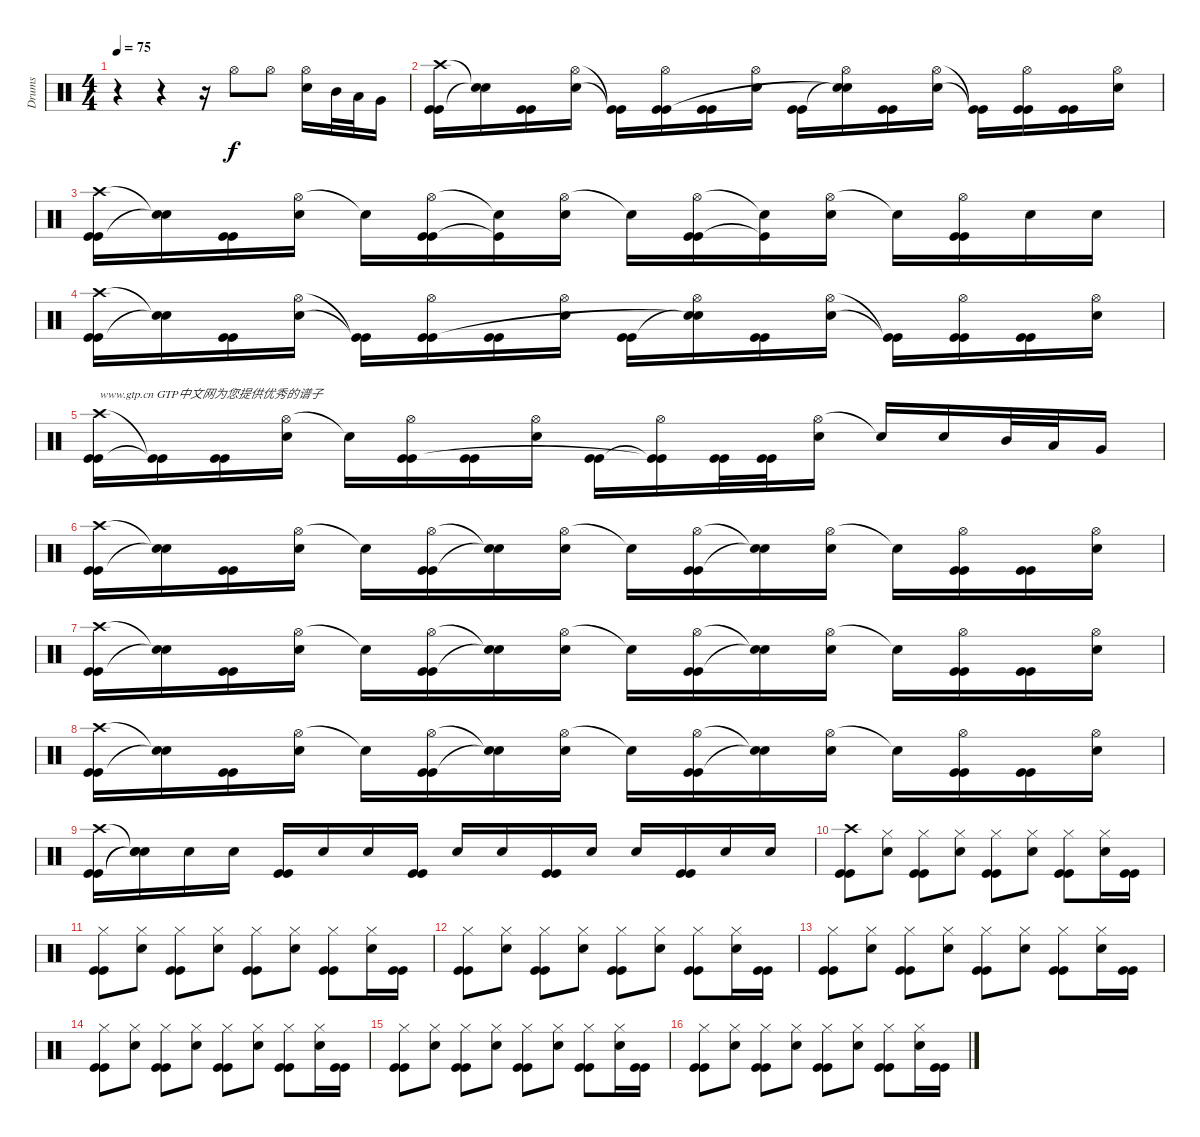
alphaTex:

\track ("Drums" "Drums") {instrument percussion}
\staff {score}
\articulation defaults
\ts (4 4)
\tempo 75
\clef neutral
\ks c
r.4{dy f} r.4 r.16 "Hi-Hat (open)".8 "Hi-Hat (open)".8 ("Hi-Hat (open)" "Snare (hit) 2").16 "Mid Tom (hit)".32 "Low Tom (hit)".32 "Very Low Tom (hit)".16 |
("Crash high (hit)" "Kick (hit)" "Kick (hit)").16 ("Snare (hit)"{t} "Snare (hit)"{t}).16 ("Kick (hit)" "Kick (hit)").16 ("Hi-Hat (open)" "Snare (hit) 2").16 ("Kick (hit)"{t} "Kick (hit)"{t}).16 ("Hi-Hat (open)" "Kick (hit)" "Kick (hit)").16 ("Kick (hit)" "Kick (hit)").16 ("Hi-Hat (open)" "Snare (hit) 2").16 ("Kick (hit)" "Kick (hit)").16 ("Hi-Hat (open)" "Snare (hit)"{t} "Snare (hit)"{t}).16 ("Kick (hit)" "Kick (hit)").16 ("Hi-Hat (open)" "Snare (hit) 2").16 ("Kick (hit)"{t} "Kick (hit)"{t}).16 ("Hi-Hat (open)" "Kick (hit)" "Kick (hit)").16 ("Kick (hit)" "Kick (hit)").16 ("Hi-Hat (open)" "Snare (hit) 2").16 |
("Crash high (hit)" "Kick (hit)" "Kick (hit)").16 ("Snare (hit)"{t} "Snare (hit)"{t}).16 ("Kick (hit)" "Kick (hit)").16 ("Hi-Hat (open)" "Snare (hit) 2").16 "Snare (hit)"{t}.16 ("Hi-Hat (open)" "Kick (hit)" "Kick (hit)").16 ("Snare (hit)"{t} "Kick (hit)"{t}).16 ("Hi-Hat (open)" "Snare (hit) 2").16 "Snare (hit)"{t}.16 ("Hi-Hat (open)" "Kick (hit)" "Kick (hit)").16 ("Snare (hit)"{t} "Kick (hit)"{t}).16 ("Hi-Hat (open)" "Snare (hit) 2").16 "Snare (hit)"{t}.16 ("Hi-Hat (open)" "Kick (hit)" "Kick (hit)").16 "Snare (hit) 2".16 "Snare (hit) 2".16 |
("Crash high (hit)" "Kick (hit)" "Kick (hit)").16 ("Snare (hit)"{t} "Snare (hit)"{t}).16 ("Kick (hit)" "Kick (hit)").16 ("Hi-Hat (open)" "Snare (hit) 2").16 ("Kick (hit)"{t} "Kick (hit)"{t}).16 ("Hi-Hat (open)" "Kick (hit)" "Kick (hit)").16 ("Kick (hit)" "Kick (hit)").16 ("Hi-Hat (open)" "Snare (hit) 2").16 ("Kick (hit)" "Kick (hit)").16 ("Hi-Hat (open)" "Snare (hit)"{t} "Snare (hit)"{t}).16 ("Kick (hit)" "Kick (hit)").16 ("Hi-Hat (open)" "Snare (hit) 2").16 ("Kick (hit)"{t} "Kick (hit)"{t}).16 ("Hi-Hat (open)" "Kick (hit)" "Kick (hit)").16 ("Kick (hit)" "Kick (hit)").16 ("Hi-Hat (open)" "Snare (hit) 2").16 |
("Crash high (hit)" "Kick (hit)" "Kick (hit)").16{txt "www.gtp.cn GTP中文网为您提供优秀的谱子"} ("Kick (hit)"{t} "Kick (hit)"{t}).16 ("Kick (hit)" "Kick (hit)").16 ("Hi-Hat (open)" "Snare (hit) 2").16 "Snare (hit)"{t}.16 ("Hi-Hat (open)" "Kick (hit)" "Kick (hit)").16 ("Kick (hit)" "Kick (hit)").16 ("Hi-Hat (open)" "Snare (hit) 2").16 ("Kick (hit)" "Kick (hit)").16 ("Hi-Hat (open)" "Kick (hit)"{t} "Kick (hit)"{t}).16 ("Kick (hit)" "Kick (hit)").32 ("Kick (hit)" "Kick (hit)").32 ("Hi-Hat (open)" "Snare (hit) 2").16 "Snare (hit)"{t}.16 "Snare (hit) 2".16 "Mid Tom (hit)".32 "Low Tom (hit)".32 "Very Low Tom (hit)".16 |
("Crash high (hit)" "Kick (hit)" "Kick (hit)").16 ("Snare (hit)"{t} "Snare (hit)"{t}).16 ("Kick (hit)" "Kick (hit)").16 ("Hi-Hat (open)" "Snare (hit) 2").16 "Snare (hit)"{t}.16 ("Hi-Hat (open)" "Kick (hit)" "Kick (hit)").16 ("Snare (hit)"{t} "Snare (hit)"{t}).16 ("Hi-Hat (open)" "Snare (hit) 2").16 "Snare (hit)"{t}.16 ("Hi-Hat (open)" "Kick (hit)" "Kick (hit)").16 ("Snare (hit)"{t} "Snare (hit)"{t}).16 ("Hi-Hat (open)" "Snare (hit) 2").16 "Snare (hit)"{t}.16 ("Hi-Hat (open)" "Kick (hit)" "Kick (hit)").16 ("Kick (hit)" "Kick (hit)").16 ("Hi-Hat (open)" "Snare (hit) 2").16 |
("Crash high (hit)" "Kick (hit)" "Kick (hit)").16 ("Snare (hit)"{t} "Snare (hit)"{t}).16 ("Kick (hit)" "Kick (hit)").16 ("Hi-Hat (open)" "Snare (hit) 2").16 "Snare (hit)"{t}.16 ("Hi-Hat (open)" "Kick (hit)" "Kick (hit)").16 ("Snare (hit)"{t} "Snare (hit)"{t}).16 ("Hi-Hat (open)" "Snare (hit) 2").16 "Snare (hit)"{t}.16 ("Hi-Hat (open)" "Kick (hit)" "Kick (hit)").16 ("Snare (hit)"{t} "Snare (hit)"{t}).16 ("Hi-Hat (open)" "Snare (hit) 2").16 "Snare (hit)"{t}.16 ("Hi-Hat (open)" "Kick (hit)" "Kick (hit)").16 ("Kick (hit)" "Kick (hit)").16 ("Hi-Hat (open)" "Snare (hit) 2").16 |
("Crash high (hit)" "Kick (hit)" "Kick (hit)").16 ("Snare (hit)"{t} "Snare (hit)"{t}).16 ("Kick (hit)" "Kick (hit)").16 ("Hi-Hat (open)" "Snare (hit) 2").16 "Snare (hit)"{t}.16 ("Hi-Hat (open)" "Kick (hit)" "Kick (hit)").16 ("Snare (hit)"{t} "Snare (hit)"{t}).16 ("Hi-Hat (open)" "Snare (hit) 2").16 "Snare (hit)"{t}.16 ("Hi-Hat (open)" "Kick (hit)" "Kick (hit)").16 ("Snare (hit)"{t} "Snare (hit)"{t}).16 ("Hi-Hat (open)" "Snare (hit) 2").16 "Snare (hit)"{t}.16 ("Hi-Hat (open)" "Kick (hit)" "Kick (hit)").16 ("Kick (hit)" "Kick (hit)").16 ("Hi-Hat (open)" "Snare (hit) 2").16 |
("Crash high (hit)" "Kick (hit)" "Kick (hit)").16 ("Snare (hit)"{t} "Snare (hit)"{t} "Snare (hit)"{t}).16 "Snare (hit) 2".16 "Snare (hit) 2".16 ("Kick (hit)" "Kick (hit)").16 "Snare (hit) 2".16 "Snare (hit) 2".16 ("Kick (hit)" "Kick (hit)").16 "Snare (hit) 2".16 "Snare (hit) 2".16 ("Kick (hit)" "Kick (hit)").16 "Snare (hit) 2".16 "Snare (hit) 2".16 ("Kick (hit)" "Kick (hit)").16 "Snare (hit) 2".16 "Snare (hit) 2".16 |
("Crash high (hit)" "Kick (hit)" "Kick (hit)").8 ("Hi-Hat (closed)" "Snare (hit) 2").8 ("Hi-Hat (closed)" "Kick (hit)" "Kick (hit)").8 ("Hi-Hat (closed)" "Snare (hit) 2").8 ("Hi-Hat (closed)" "Kick (hit)" "Kick (hit)").8 ("Hi-Hat (closed)" "Snare (hit) 2").8 ("Hi-Hat (closed)" "Kick (hit)" "Kick (hit)").8 ("Hi-Hat (closed)" "Snare (hit) 2").16 ("Kick (hit)" "Kick (hit)").16 |
("Hi-Hat (closed)" "Kick (hit)" "Kick (hit)").8 ("Hi-Hat (closed)" "Snare (hit) 2").8 ("Hi-Hat (closed)" "Kick (hit)" "Kick (hit)").8 ("Hi-Hat (closed)" "Snare (hit) 2").8 ("Hi-Hat (closed)" "Kick (hit)" "Kick (hit)").8 ("Hi-Hat (closed)" "Snare (hit) 2").8 ("Hi-Hat (closed)" "Kick (hit)" "Kick (hit)").8 ("Hi-Hat (closed)" "Snare (hit) 2").16 ("Kick (hit)" "Kick (hit)").16 |
("Hi-Hat (closed)" "Kick (hit)" "Kick (hit)").8 ("Hi-Hat (closed)" "Snare (hit) 2").8 ("Hi-Hat (closed)" "Kick (hit)" "Kick (hit)").8 ("Hi-Hat (closed)" "Snare (hit) 2").8 ("Hi-Hat (closed)" "Kick (hit)" "Kick (hit)").8 ("Hi-Hat (closed)" "Snare (hit) 2").8 ("Hi-Hat (closed)" "Kick (hit)" "Kick (hit)").8 ("Hi-Hat (closed)" "Snare (hit) 2").16 ("Kick (hit)" "Kick (hit)").16 |
("Hi-Hat (closed)" "Kick (hit)" "Kick (hit)").8 ("Hi-Hat (closed)" "Snare (hit) 2").8 ("Hi-Hat (closed)" "Kick (hit)" "Kick (hit)").8 ("Hi-Hat (closed)" "Snare (hit) 2").8 ("Hi-Hat (closed)" "Kick (hit)" "Kick (hit)").8 ("Hi-Hat (closed)" "Snare (hit) 2").8 ("Hi-Hat (closed)" "Kick (hit)" "Kick (hit)").8 ("Hi-Hat (closed)" "Snare (hit) 2").16 ("Kick (hit)" "Kick (hit)").16 |
("Hi-Hat (closed)" "Kick (hit)" "Kick (hit)").8 ("Hi-Hat (closed)" "Snare (hit) 2").8 ("Hi-Hat (closed)" "Kick (hit)" "Kick (hit)").8 ("Hi-Hat (closed)" "Snare (hit) 2").8 ("Hi-Hat (closed)" "Kick (hit)" "Kick (hit)").8 ("Hi-Hat (closed)" "Snare (hit) 2").8 ("Hi-Hat (closed)" "Kick (hit)" "Kick (hit)").8 ("Hi-Hat (closed)" "Snare (hit) 2").16 ("Kick (hit)" "Kick (hit)").16 |
("Hi-Hat (closed)" "Kick (hit)" "Kick (hit)").8 ("Hi-Hat (closed)" "Snare (hit) 2").8 ("Hi-Hat (closed)" "Kick (hit)" "Kick (hit)").8 ("Hi-Hat (closed)" "Snare (hit) 2").8 ("Hi-Hat (closed)" "Kick (hit)" "Kick (hit)").8 ("Hi-Hat (closed)" "Snare (hit) 2").8 ("Hi-Hat (closed)" "Kick (hit)" "Kick (hit)").8 ("Hi-Hat (closed)" "Snare (hit) 2").16 ("Kick (hit)" "Kick (hit)").16 |
("Hi-Hat (closed)" "Kick (hit)" "Kick (hit)").8 ("Hi-Hat (closed)" "Snare (hit) 2").8 ("Hi-Hat (closed)" "Kick (hit)" "Kick (hit)").8 ("Hi-Hat (closed)" "Snare (hit) 2").8 ("Hi-Hat (closed)" "Kick (hit)" "Kick (hit)").8 ("Hi-Hat (closed)" "Snare (hit) 2").8 ("Hi-Hat (closed)" "Kick (hit)" "Kick (hit)").8 ("Hi-Hat (closed)" "Snare (hit) 2").16 ("Kick (hit)" "Kick (hit)").16
